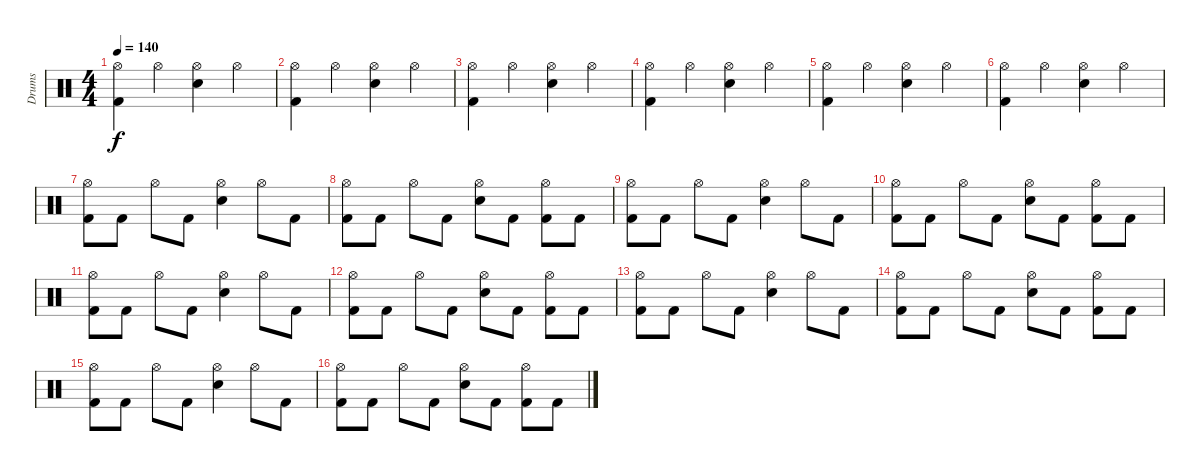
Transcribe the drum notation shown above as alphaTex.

\track ("Drums" "Drums") {instrument percussion}
\staff {score}
\articulation defaults
\ts (4 4)
\tempo 140
\clef neutral
\ks c
("Hi-Hat (open)" "Kick (hit) 2").4{dy f} "Hi-Hat (open)".4 ("Hi-Hat (open)" "Snare (hit) 2").4 "Hi-Hat (open)".4 |
("Hi-Hat (open)" "Kick (hit) 2").4 "Hi-Hat (open)".4 ("Hi-Hat (open)" "Snare (hit) 2").4 "Hi-Hat (open)".4 |
("Hi-Hat (open)" "Kick (hit) 2").4 "Hi-Hat (open)".4 ("Hi-Hat (open)" "Snare (hit) 2").4 "Hi-Hat (open)".4 |
("Hi-Hat (open)" "Kick (hit) 2").4 "Hi-Hat (open)".4 ("Hi-Hat (open)" "Snare (hit) 2").4 "Hi-Hat (open)".4 |
("Hi-Hat (open)" "Kick (hit) 2").4 "Hi-Hat (open)".4 ("Hi-Hat (open)" "Snare (hit) 2").4 "Hi-Hat (open)".4 |
("Hi-Hat (open)" "Kick (hit) 2").4 "Hi-Hat (open)".4 ("Hi-Hat (open)" "Snare (hit) 2").4 "Hi-Hat (open)".4 |
("Hi-Hat (open)" "Kick (hit) 2").8 "Kick (hit) 2".8 "Hi-Hat (open)".8 "Kick (hit) 2".8 ("Hi-Hat (open)" "Snare (hit) 2").4 "Hi-Hat (open)".8 "Kick (hit) 2".8 |
("Hi-Hat (open)" "Kick (hit) 2").8 "Kick (hit) 2".8 "Hi-Hat (open)".8 "Kick (hit) 2".8 ("Hi-Hat (open)" "Snare (hit) 2").8 "Kick (hit) 2".8 ("Hi-Hat (open)" "Kick (hit) 2").8 "Kick (hit) 2".8 |
("Hi-Hat (open)" "Kick (hit) 2").8 "Kick (hit) 2".8 "Hi-Hat (open)".8 "Kick (hit) 2".8 ("Hi-Hat (open)" "Snare (hit) 2").4 "Hi-Hat (open)".8 "Kick (hit) 2".8 |
("Hi-Hat (open)" "Kick (hit) 2").8 "Kick (hit) 2".8 "Hi-Hat (open)".8 "Kick (hit) 2".8 ("Hi-Hat (open)" "Snare (hit) 2").8 "Kick (hit) 2".8 ("Hi-Hat (open)" "Kick (hit) 2").8 "Kick (hit) 2".8 |
("Hi-Hat (open)" "Kick (hit) 2").8 "Kick (hit) 2".8 "Hi-Hat (open)".8 "Kick (hit) 2".8 ("Hi-Hat (open)" "Snare (hit) 2").4 "Hi-Hat (open)".8 "Kick (hit) 2".8 |
("Hi-Hat (open)" "Kick (hit) 2").8 "Kick (hit) 2".8 "Hi-Hat (open)".8 "Kick (hit) 2".8 ("Hi-Hat (open)" "Snare (hit) 2").8 "Kick (hit) 2".8 ("Hi-Hat (open)" "Kick (hit) 2").8 "Kick (hit) 2".8 |
("Hi-Hat (open)" "Kick (hit) 2").8 "Kick (hit) 2".8 "Hi-Hat (open)".8 "Kick (hit) 2".8 ("Hi-Hat (open)" "Snare (hit) 2").4 "Hi-Hat (open)".8 "Kick (hit) 2".8 |
("Hi-Hat (open)" "Kick (hit) 2").8 "Kick (hit) 2".8 "Hi-Hat (open)".8 "Kick (hit) 2".8 ("Hi-Hat (open)" "Snare (hit) 2").8 "Kick (hit) 2".8 ("Hi-Hat (open)" "Kick (hit) 2").8 "Kick (hit) 2".8 |
("Hi-Hat (open)" "Kick (hit) 2").8 "Kick (hit) 2".8 "Hi-Hat (open)".8 "Kick (hit) 2".8 ("Hi-Hat (open)" "Snare (hit) 2").4 "Hi-Hat (open)".8 "Kick (hit) 2".8 |
("Hi-Hat (open)" "Kick (hit) 2").8 "Kick (hit) 2".8 "Hi-Hat (open)".8 "Kick (hit) 2".8 ("Hi-Hat (open)" "Snare (hit) 2").8 "Kick (hit) 2".8 ("Hi-Hat (open)" "Kick (hit) 2").8 "Kick (hit) 2".8
